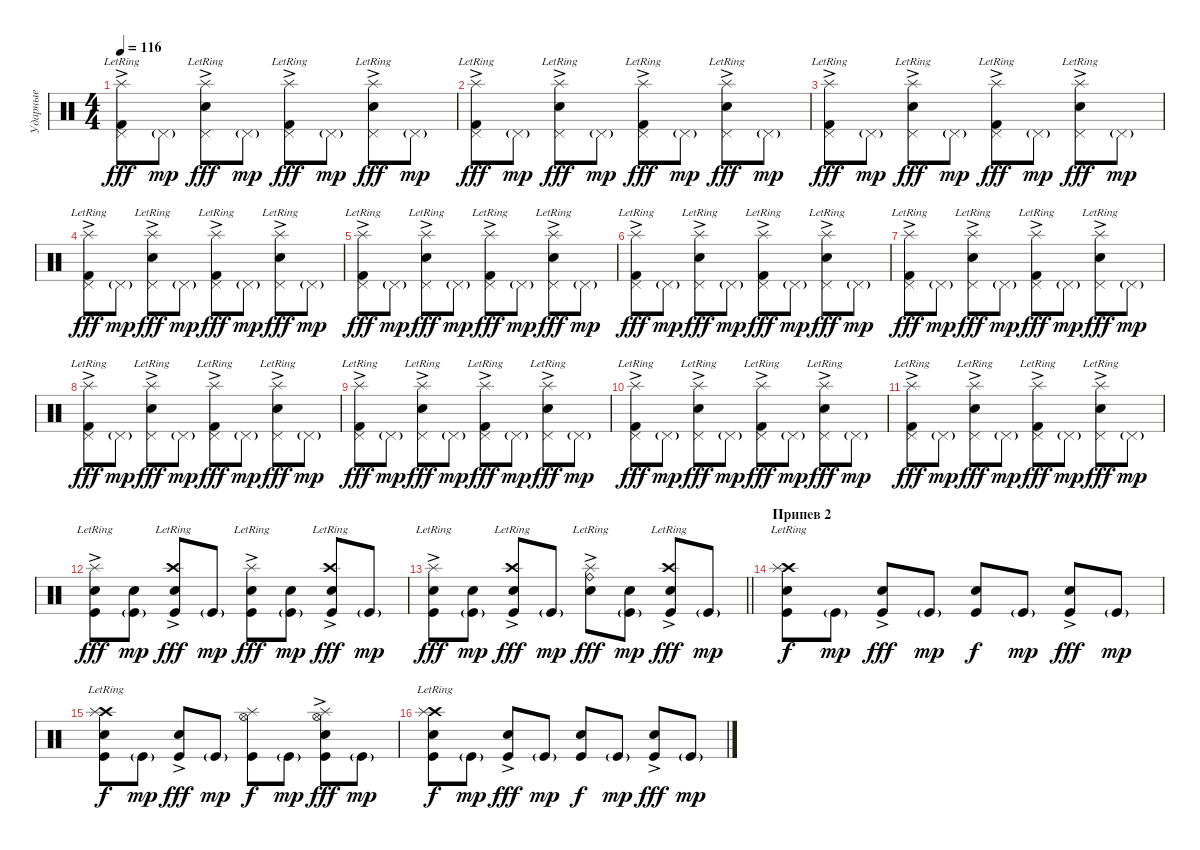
\track ("Ударные" "Ударные") {instrument percussion}
\staff {score}
\articulation defaults
\ts (4 4)
\tempo 116
\clef neutral
\ks c
("Splash (hit)"{ac lr} "Kick (hit) 2" "Pedal Hi-Hat (hit)"{lr}).8{dy fff} "Pedal Hi-Hat (hit)"{g}.8{dy mp} ("Splash (hit)"{ac lr} "Snare (hit) 2"{ac} "Pedal Hi-Hat (hit)").8{dy fff} "Pedal Hi-Hat (hit)"{g}.8{dy mp} ("Splash (hit)"{ac lr} "Kick (hit) 2" "Pedal Hi-Hat (hit)").8{dy fff} "Pedal Hi-Hat (hit)"{g}.8{dy mp} ("Splash (hit)"{ac lr} "Snare (hit) 2"{ac} "Pedal Hi-Hat (hit)").8{dy fff} "Pedal Hi-Hat (hit)"{g}.8{dy mp} |
("Splash (hit)"{ac lr} "Kick (hit) 2" "Pedal Hi-Hat (hit)"{lr}).8{dy fff} "Pedal Hi-Hat (hit)"{g}.8{dy mp} ("Splash (hit)"{ac lr} "Snare (hit) 2"{ac} "Pedal Hi-Hat (hit)").8{dy fff} "Pedal Hi-Hat (hit)"{g}.8{dy mp} ("Splash (hit)"{ac lr} "Kick (hit) 2" "Pedal Hi-Hat (hit)").8{dy fff} "Pedal Hi-Hat (hit)"{g}.8{dy mp} ("Splash (hit)"{ac lr} "Snare (hit) 2"{ac} "Pedal Hi-Hat (hit)").8{dy fff} "Pedal Hi-Hat (hit)"{g}.8{dy mp} |
("Splash (hit)"{ac lr} "Kick (hit) 2" "Pedal Hi-Hat (hit)"{lr}).8{dy fff} "Pedal Hi-Hat (hit)"{g}.8{dy mp} ("Splash (hit)"{ac lr} "Snare (hit) 2"{ac} "Pedal Hi-Hat (hit)").8{dy fff} "Pedal Hi-Hat (hit)"{g}.8{dy mp} ("Splash (hit)"{ac lr} "Kick (hit) 2" "Pedal Hi-Hat (hit)").8{dy fff} "Pedal Hi-Hat (hit)"{g}.8{dy mp} ("Splash (hit)"{ac lr} "Snare (hit) 2"{ac} "Pedal Hi-Hat (hit)").8{dy fff} "Pedal Hi-Hat (hit)"{g}.8{dy mp} |
("Splash (hit)"{ac lr} "Kick (hit) 2" "Pedal Hi-Hat (hit)"{lr}).8{dy fff} "Pedal Hi-Hat (hit)"{g}.8{dy mp} ("Splash (hit)"{ac lr} "Snare (hit) 2"{ac} "Pedal Hi-Hat (hit)").8{dy fff} "Pedal Hi-Hat (hit)"{g}.8{dy mp} ("Splash (hit)"{ac lr} "Kick (hit) 2" "Pedal Hi-Hat (hit)").8{dy fff} "Pedal Hi-Hat (hit)"{g}.8{dy mp} ("Splash (hit)"{ac lr} "Snare (hit) 2"{ac} "Pedal Hi-Hat (hit)").8{dy fff} "Pedal Hi-Hat (hit)"{g}.8{dy mp} |
("Splash (hit)"{ac lr} "Kick (hit) 2" "Pedal Hi-Hat (hit)"{lr}).8{dy fff} "Pedal Hi-Hat (hit)"{g}.8{dy mp} ("Splash (hit)"{ac lr} "Snare (hit) 2"{ac} "Pedal Hi-Hat (hit)").8{dy fff} "Pedal Hi-Hat (hit)"{g}.8{dy mp} ("Splash (hit)"{ac lr} "Kick (hit) 2" "Pedal Hi-Hat (hit)").8{dy fff} "Pedal Hi-Hat (hit)"{g}.8{dy mp} ("Splash (hit)"{ac lr} "Snare (hit) 2"{ac} "Pedal Hi-Hat (hit)").8{dy fff} "Pedal Hi-Hat (hit)"{g}.8{dy mp} |
("Splash (hit)"{ac lr} "Kick (hit) 2" "Pedal Hi-Hat (hit)"{lr}).8{dy fff} "Pedal Hi-Hat (hit)"{g}.8{dy mp} ("Splash (hit)"{ac lr} "Snare (hit) 2"{ac} "Pedal Hi-Hat (hit)").8{dy fff} "Pedal Hi-Hat (hit)"{g}.8{dy mp} ("Splash (hit)"{ac lr} "Kick (hit) 2" "Pedal Hi-Hat (hit)").8{dy fff} "Pedal Hi-Hat (hit)"{g}.8{dy mp} ("Splash (hit)"{ac lr} "Snare (hit) 2"{ac} "Pedal Hi-Hat (hit)").8{dy fff} "Pedal Hi-Hat (hit)"{g}.8{dy mp} |
("Splash (hit)"{ac lr} "Kick (hit) 2" "Pedal Hi-Hat (hit)"{lr}).8{dy fff} "Pedal Hi-Hat (hit)"{g}.8{dy mp} ("Splash (hit)"{ac lr} "Snare (hit) 2"{ac} "Pedal Hi-Hat (hit)").8{dy fff} "Pedal Hi-Hat (hit)"{g}.8{dy mp} ("Splash (hit)"{ac lr} "Kick (hit) 2" "Pedal Hi-Hat (hit)").8{dy fff} "Pedal Hi-Hat (hit)"{g}.8{dy mp} ("Splash (hit)"{ac lr} "Snare (hit) 2"{ac} "Pedal Hi-Hat (hit)").8{dy fff} "Pedal Hi-Hat (hit)"{g}.8{dy mp} |
("Splash (hit)"{ac lr} "Kick (hit) 2" "Pedal Hi-Hat (hit)"{lr}).8{dy fff} "Pedal Hi-Hat (hit)"{g}.8{dy mp} ("Splash (hit)"{ac lr} "Snare (hit) 2"{ac} "Pedal Hi-Hat (hit)").8{dy fff} "Pedal Hi-Hat (hit)"{g}.8{dy mp} ("Splash (hit)"{ac lr} "Kick (hit) 2" "Pedal Hi-Hat (hit)").8{dy fff} "Pedal Hi-Hat (hit)"{g}.8{dy mp} ("Splash (hit)"{ac lr} "Snare (hit) 2"{ac} "Pedal Hi-Hat (hit)").8{dy fff} "Pedal Hi-Hat (hit)"{g}.8{dy mp} |
("Splash (hit)"{ac lr} "Kick (hit) 2" "Pedal Hi-Hat (hit)"{lr}).8{dy fff} "Pedal Hi-Hat (hit)"{g}.8{dy mp} ("Splash (hit)"{ac lr} "Snare (hit) 2"{ac} "Pedal Hi-Hat (hit)").8{dy fff} "Pedal Hi-Hat (hit)"{g}.8{dy mp} ("Splash (hit)"{ac lr} "Kick (hit) 2" "Pedal Hi-Hat (hit)").8{dy fff} "Pedal Hi-Hat (hit)"{g}.8{dy mp} ("Splash (hit)"{ac lr} "Snare (hit) 2"{ac} "Pedal Hi-Hat (hit)").8{dy fff} "Pedal Hi-Hat (hit)"{g}.8{dy mp} |
("Splash (hit)"{ac lr} "Kick (hit) 2" "Pedal Hi-Hat (hit)"{lr}).8{dy fff} "Pedal Hi-Hat (hit)"{g}.8{dy mp} ("Splash (hit)"{ac lr} "Snare (hit) 2"{ac} "Pedal Hi-Hat (hit)").8{dy fff} "Pedal Hi-Hat (hit)"{g}.8{dy mp} ("Splash (hit)"{ac lr} "Kick (hit) 2" "Pedal Hi-Hat (hit)").8{dy fff} "Pedal Hi-Hat (hit)"{g}.8{dy mp} ("Splash (hit)"{ac lr} "Snare (hit) 2"{ac} "Pedal Hi-Hat (hit)").8{dy fff} "Pedal Hi-Hat (hit)"{g}.8{dy mp} |
("Splash (hit)"{ac lr} "Kick (hit) 2" "Pedal Hi-Hat (hit)"{lr}).8{dy fff} "Pedal Hi-Hat (hit)"{g}.8{dy mp} ("Splash (hit)"{ac lr} "Snare (hit) 2"{ac} "Pedal Hi-Hat (hit)").8{dy fff} "Pedal Hi-Hat (hit)"{g}.8{dy mp} ("Splash (hit)"{ac lr} "Kick (hit) 2" "Pedal Hi-Hat (hit)").8{dy fff} "Pedal Hi-Hat (hit)"{g}.8{dy mp} ("Splash (hit)"{ac lr} "Snare (hit) 2"{ac} "Pedal Hi-Hat (hit)").8{dy fff} "Pedal Hi-Hat (hit)"{g}.8{dy mp} |
("Splash (hit)"{ac lr} "Snare (hit) 2" "Kick (hit)"{lr}).8{dy fff} ("Snare (hit) 2" "Kick (hit)"{g}).8{dy mp} ("Crash high (hit)"{ac lr} "Electric Snare (hit)"{ac} "Kick (hit)").8{dy fff} "Kick (hit)"{g}.8{dy mp} ("Splash (hit)"{ac lr} "Snare (hit) 2" "Kick (hit)").8{dy fff} ("Snare (hit) 2" "Kick (hit)"{g}).8{dy mp} ("Crash high (hit)"{ac lr} "Electric Snare (hit)"{ac} "Kick (hit)").8{dy fff} "Kick (hit)"{g}.8{dy mp} |
\barLineRight lightlight
("Splash (hit)"{ac lr} "Snare (hit) 2" "Kick (hit)").8{dy fff} ("Snare (hit) 2" "Kick (hit)"{g}).8{dy mp} ("Crash high (hit)"{ac lr} "Electric Snare (hit)"{ac} "Kick (hit)").8{dy fff} "Kick (hit)"{g}.8{dy mp} ("Splash (hit)"{ac lr} "Snare (hit) 2" "Ride (bell)").8{dy fff} ("Snare (hit) 2" "Kick (hit)"{g}).8{dy mp} ("Crash high (hit)"{ac lr} "Electric Snare (hit)"{ac} "Kick (hit)").8{dy fff} "Kick (hit)"{g}.8{dy mp} |
\section ("" "Припев 2")
("Crash high (hit)"{lr} "Splash (hit)" "Snare (hit) 2" "Kick (hit)"{lr}).8{dy f volume 10} "Kick (hit)"{g}.8{dy mp} ("Electric Snare (hit)"{ac} "Kick (hit)").8{dy fff} "Kick (hit)"{g}.8{dy mp} ("Snare (hit) 2" "Kick (hit)").8{dy f} "Kick (hit)"{g}.8{dy mp} ("Electric Snare (hit)"{ac} "Kick (hit)").8{dy fff} "Kick (hit)"{g}.8{dy mp} |
("Crash high (hit)"{lr} "Splash (hit)" "Snare (hit) 2" "Kick (hit)"{lr}).8{dy f} "Kick (hit)"{g}.8{dy mp} ("Electric Snare (hit)"{ac} "Kick (hit)").8{dy fff} "Kick (hit)"{g}.8{dy mp} ("Splash (hit)" "Hi-Hat (open)" "Kick (hit)").8{dy f} "Kick (hit)"{g}.8{dy mp} ("Splash (hit)" "Hi-Hat (open)" "Electric Snare (hit)"{ac} "Kick (hit)").8{dy fff} "Kick (hit)"{g}.8{dy mp} |
("Crash high (hit)"{lr} "Splash (hit)" "Snare (hit) 2" "Kick (hit)"{lr}).8{dy f} "Kick (hit)"{g}.8{dy mp} ("Electric Snare (hit)"{ac} "Kick (hit)").8{dy fff} "Kick (hit)"{g}.8{dy mp} ("Snare (hit) 2" "Kick (hit)").8{dy f} "Kick (hit)"{g}.8{dy mp} ("Electric Snare (hit)"{ac} "Kick (hit)").8{dy fff} "Kick (hit)"{g}.8{dy mp}
